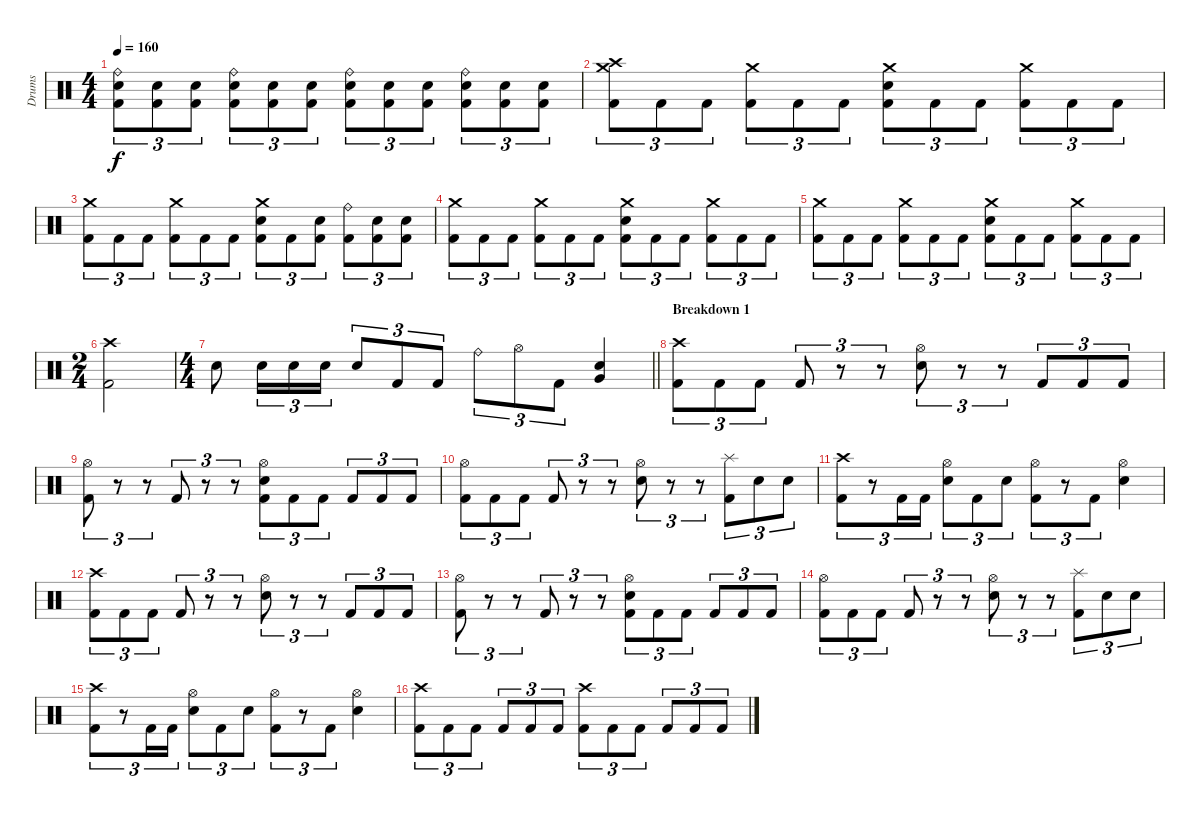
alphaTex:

\track ("Drums" "Drums") {instrument percussion}
\staff {score}
\articulation defaults
\ts (4 4)
\tempo 160
\clef neutral
\ks c
("Ride (bell)" "Electric Snare (hit)" "Kick (hit) 2").8{tu (3 2) dy f} ("Electric Snare (hit)" "Kick (hit) 2").8{tu (3 2)} ("Electric Snare (hit)" "Kick (hit) 2").8{tu (3 2)} ("Ride (bell)" "Electric Snare (hit)" "Kick (hit) 2").8{tu (3 2)} ("Electric Snare (hit)" "Kick (hit) 2").8{tu (3 2)} ("Electric Snare (hit)" "Kick (hit) 2").8{tu (3 2)} ("Ride (bell)" "Electric Snare (hit)" "Kick (hit) 2").8{tu (3 2)} ("Electric Snare (hit)" "Kick (hit) 2").8{tu (3 2)} ("Electric Snare (hit)" "Kick (hit) 2").8{tu (3 2)} ("Ride (bell)" "Electric Snare (hit)" "Kick (hit) 2").8{tu (3 2)} ("Electric Snare (hit)" "Kick (hit) 2").8{tu (3 2)} ("Electric Snare (hit)" "Kick (hit) 2").8{tu (3 2)} |
("Crash high (hit)" "Crash medium (hit)" "Kick (hit) 2").8{tu (3 2)} "Kick (hit) 2".8{tu (3 2)} "Kick (hit) 2".8{tu (3 2)} ("Crash medium (hit)" "Kick (hit) 2").8{tu (3 2)} "Kick (hit) 2".8{tu (3 2)} "Kick (hit) 2".8{tu (3 2)} ("Crash medium (hit)" "Electric Snare (hit)" "Kick (hit) 2").8{tu (3 2)} "Kick (hit) 2".8{tu (3 2)} "Kick (hit) 2".8{tu (3 2)} ("Crash medium (hit)" "Kick (hit) 2").8{tu (3 2)} "Kick (hit) 2".8{tu (3 2)} "Kick (hit) 2".8{tu (3 2)} |
("Crash medium (hit)" "Kick (hit) 2").8{tu (3 2)} "Kick (hit) 2".8{tu (3 2)} "Kick (hit) 2".8{tu (3 2)} ("Crash medium (hit)" "Kick (hit) 2").8{tu (3 2)} "Kick (hit) 2".8{tu (3 2)} "Kick (hit) 2".8{tu (3 2)} ("Crash medium (hit)" "Electric Snare (hit)" "Kick (hit) 2").8{tu (3 2)} "Kick (hit) 2".8{tu (3 2)} ("Electric Snare (hit)" "Kick (hit) 2").8{tu (3 2)} ("Ride (bell)" "Kick (hit) 2").8{tu (3 2)} ("Electric Snare (hit)" "Kick (hit) 2").8{tu (3 2)} ("Electric Snare (hit)" "Kick (hit) 2").8{tu (3 2)} |
("Crash medium (hit)" "Kick (hit) 2").8{tu (3 2)} "Kick (hit) 2".8{tu (3 2)} "Kick (hit) 2".8{tu (3 2)} ("Crash medium (hit)" "Kick (hit) 2").8{tu (3 2)} "Kick (hit) 2".8{tu (3 2)} "Kick (hit) 2".8{tu (3 2)} ("Crash medium (hit)" "Electric Snare (hit)" "Kick (hit) 2").8{tu (3 2)} "Kick (hit) 2".8{tu (3 2)} "Kick (hit) 2".8{tu (3 2)} ("Crash medium (hit)" "Kick (hit) 2").8{tu (3 2)} "Kick (hit) 2".8{tu (3 2)} "Kick (hit) 2".8{tu (3 2)} |
("Crash medium (hit)" "Kick (hit) 2").8{tu (3 2)} "Kick (hit) 2".8{tu (3 2)} "Kick (hit) 2".8{tu (3 2)} ("Crash medium (hit)" "Kick (hit) 2").8{tu (3 2)} "Kick (hit) 2".8{tu (3 2)} "Kick (hit) 2".8{tu (3 2)} ("Crash medium (hit)" "Electric Snare (hit)" "Kick (hit) 2").8{tu (3 2)} "Kick (hit) 2".8{tu (3 2)} "Kick (hit) 2".8{tu (3 2)} ("Crash medium (hit)" "Kick (hit) 2").8{tu (3 2)} "Kick (hit) 2".8{tu (3 2)} "Kick (hit) 2".8{tu (3 2)} |
\ts (2 4)
("Crash high (hit)" "Kick (hit) 2").2 |
\ts (4 4)
\barLineRight lightlight "Electric Snare (hit)".8 "Electric Snare (hit)".16{tu (3 2)} "Electric Snare (hit)".16{tu (3 2)} "Electric Snare (hit)".16{tu (3 2)} "Electric Snare (hit)".8{tu (3 2)} "Kick (hit) 2".8{tu (3 2)} "Kick (hit) 2".8{tu (3 2)} "Ride (bell)".8{tu (3 2)} "Hi-Hat (open)".8{tu (3 2)} "Kick (hit) 2".8{tu (3 2)}
("Very Low Tom (hit)" "Electric Snare (hit)").4 |
\section ("" "Breakdown 1")
("Crash high (hit)" "Kick (hit) 2").8{tu (3 2)} "Kick (hit) 2".8{tu (3 2)} "Kick (hit) 2".8{tu (3 2)} "Kick (hit) 2".8{tu (3 2)} r.8{tu (3 2)} r.8{tu (3 2)} ("Hi-Hat (open)" "Electric Snare (hit)").8{tu (3 2)} r.8{tu (3 2)} r.8{tu (3 2)} "Kick (hit) 2".8{tu (3 2)} "Kick (hit) 2".8{tu (3 2)} "Kick (hit) 2".8{tu (3 2)} |
("Hi-Hat (open)" "Kick (hit) 2").8{tu (3 2)} r.8{tu (3 2)} r.8{tu (3 2)} "Kick (hit) 2".8{tu (3 2)} r.8{tu (3 2)} r.8{tu (3 2)} ("Hi-Hat (open)" "Electric Snare (hit)" "Kick (hit) 2").8{tu (3 2)} "Kick (hit) 2".8{tu (3 2)} "Kick (hit) 2".8{tu (3 2)} "Kick (hit) 2".8{tu (3 2)} "Kick (hit) 2".8{tu (3 2)} "Kick (hit) 2".8{tu (3 2)} |
("Hi-Hat (open)" "Kick (hit) 2").8{tu (3 2)} "Kick (hit) 2".8{tu (3 2)} "Kick (hit) 2".8{tu (3 2)} "Kick (hit) 2".8{tu (3 2)} r.8{tu (3 2)} r.8{tu (3 2)} ("Hi-Hat (open)" "Electric Snare (hit)").8{tu (3 2)} r.8{tu (3 2)} r.8{tu (3 2)} ("Splash (hit)" "Kick (hit) 2").8{tu (3 2)} "Electric Snare (hit)".8{tu (3 2)} "Electric Snare (hit)".8{tu (3 2)} |
("Crash high (hit)" "Kick (hit) 2").8{tu (3 2)} r.8{tu (3 2)} "Kick (hit) 2".16{tu (3 2)} "Kick (hit) 2".16{tu (3 2)} ("Hi-Hat (open)" "Electric Snare (hit)").8{tu (3 2)} "Kick (hit) 2".8{tu (3 2)} "Electric Snare (hit)".8{tu (3 2)} ("Hi-Hat (open)" "Kick (hit) 2").8{tu (3 2)} r.8{tu (3 2)} "Kick (hit) 2".8{tu (3 2)} ("Hi-Hat (open)" "Electric Snare (hit)").4 |
("Crash high (hit)" "Kick (hit) 2").8{tu (3 2)} "Kick (hit) 2".8{tu (3 2)} "Kick (hit) 2".8{tu (3 2)} "Kick (hit) 2".8{tu (3 2)} r.8{tu (3 2)} r.8{tu (3 2)} ("Hi-Hat (open)" "Electric Snare (hit)").8{tu (3 2)} r.8{tu (3 2)} r.8{tu (3 2)} "Kick (hit) 2".8{tu (3 2)} "Kick (hit) 2".8{tu (3 2)} "Kick (hit) 2".8{tu (3 2)} |
("Hi-Hat (open)" "Kick (hit) 2").8{tu (3 2)} r.8{tu (3 2)} r.8{tu (3 2)} "Kick (hit) 2".8{tu (3 2)} r.8{tu (3 2)} r.8{tu (3 2)} ("Hi-Hat (open)" "Electric Snare (hit)" "Kick (hit) 2").8{tu (3 2)} "Kick (hit) 2".8{tu (3 2)} "Kick (hit) 2".8{tu (3 2)} "Kick (hit) 2".8{tu (3 2)} "Kick (hit) 2".8{tu (3 2)} "Kick (hit) 2".8{tu (3 2)} |
("Hi-Hat (open)" "Kick (hit) 2").8{tu (3 2)} "Kick (hit) 2".8{tu (3 2)} "Kick (hit) 2".8{tu (3 2)} "Kick (hit) 2".8{tu (3 2)} r.8{tu (3 2)} r.8{tu (3 2)} ("Hi-Hat (open)" "Electric Snare (hit)").8{tu (3 2)} r.8{tu (3 2)} r.8{tu (3 2)} ("Splash (hit)" "Kick (hit) 2").8{tu (3 2)} "Electric Snare (hit)".8{tu (3 2)} "Electric Snare (hit)".8{tu (3 2)} |
("Crash high (hit)" "Kick (hit) 2").8{tu (3 2)} r.8{tu (3 2)} "Kick (hit) 2".16{tu (3 2)} "Kick (hit) 2".16{tu (3 2)} ("Hi-Hat (open)" "Electric Snare (hit)").8{tu (3 2)} "Kick (hit) 2".8{tu (3 2)} "Electric Snare (hit)".8{tu (3 2)} ("Hi-Hat (open)" "Kick (hit) 2").8{tu (3 2)} r.8{tu (3 2)} "Kick (hit) 2".8{tu (3 2)} ("Hi-Hat (open)" "Electric Snare (hit)").4 |
("Crash high (hit)" "Kick (hit) 2").8{tu (3 2)} "Kick (hit) 2".8{tu (3 2)} "Kick (hit) 2".8{tu (3 2)} "Kick (hit) 2".8{tu (3 2)} "Kick (hit) 2".8{tu (3 2)} "Kick (hit) 2".8{tu (3 2)} ("Crash high (hit)" "Kick (hit) 2").8{tu (3 2)} "Kick (hit) 2".8{tu (3 2)} "Kick (hit) 2".8{tu (3 2)} "Kick (hit) 2".8{tu (3 2)} "Kick (hit) 2".8{tu (3 2)} "Kick (hit) 2".8{tu (3 2)}
